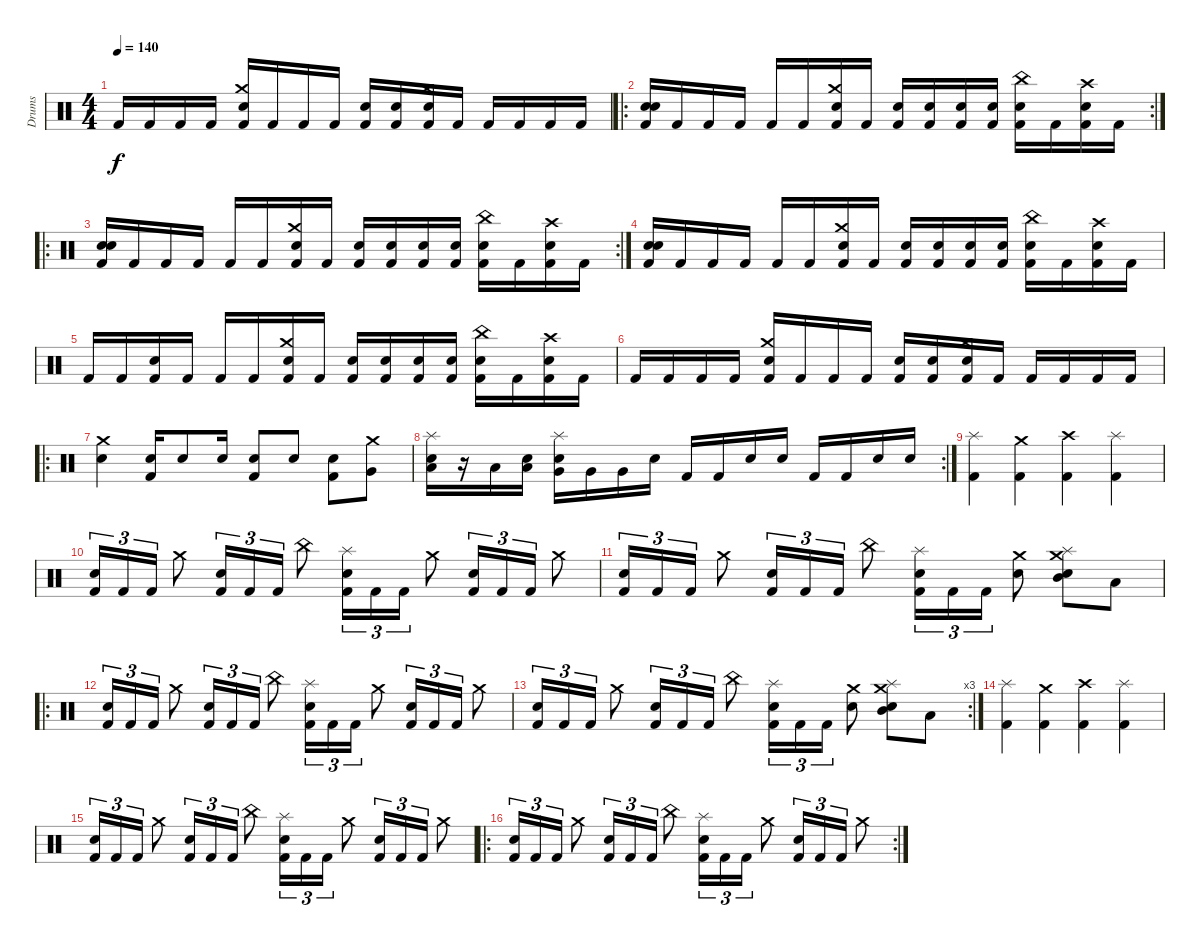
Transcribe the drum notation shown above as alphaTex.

\track ("Drums" "Drums") {instrument percussion}
\staff {score}
\articulation defaults
\ts (4 4)
\tempo 140
\clef neutral
\ks c "Kick (hit) 2".16{dy f} "Kick (hit) 2".16 "Kick (hit) 2".16 "Kick (hit) 2".16
("Crash medium (hit)" "Electric Snare (hit)" "Kick (hit) 2").16 "Kick (hit) 2".16 "Kick (hit) 2".16 "Kick (hit) 2".16 ("Electric Snare (hit)" "Kick (hit) 2").16 ("Snare (hit) 2" "Kick (hit) 2").16 ("Crash medium (hit)" "Electric Snare (hit)" "Kick (hit) 2").16 "Kick (hit) 2".16 "Kick (hit) 2".16 "Kick (hit) 2".16 "Kick (hit) 2".16 "Kick (hit) 2".16 |
\ro
\rc 2
("Electric Snare (hit)" "Snare (hit) 2" "Kick (hit) 2").16 "Kick (hit) 2".16 "Kick (hit) 2".16 "Kick (hit) 2".16 "Kick (hit) 2".16 "Kick (hit) 2".16 ("Crash medium (hit)" "Electric Snare (hit)" "Kick (hit) 2").16 "Kick (hit) 2".16 ("Electric Snare (hit)" "Kick (hit) 2").16 ("Snare (hit) 2" "Kick (hit) 2").16 ("Electric Snare (hit)" "Kick (hit) 2").16 ("Snare (hit) 2" "Kick (hit) 2").16 ("China (hit)" "Electric Snare (hit)" "Kick (hit) 2").16 "Kick (hit) 2".16 ("Crash high (hit)" "Electric Snare (hit)" "Kick (hit) 2").16 "Kick (hit) 2".16 |
\ro
\rc 2
("Electric Snare (hit)" "Snare (hit) 2" "Kick (hit) 2").16 "Kick (hit) 2".16 "Kick (hit) 2".16 "Kick (hit) 2".16 "Kick (hit) 2".16 "Kick (hit) 2".16 ("Crash medium (hit)" "Electric Snare (hit)" "Kick (hit) 2").16 "Kick (hit) 2".16 ("Electric Snare (hit)" "Kick (hit) 2").16 ("Snare (hit) 2" "Kick (hit) 2").16 ("Electric Snare (hit)" "Kick (hit) 2").16 ("Snare (hit) 2" "Kick (hit) 2").16 ("China (hit)" "Electric Snare (hit)" "Kick (hit) 2").16 "Kick (hit) 2".16 ("Crash high (hit)" "Electric Snare (hit)" "Kick (hit) 2").16 "Kick (hit) 2".16 |
("Electric Snare (hit)" "Snare (hit) 2" "Kick (hit) 2").16 "Kick (hit) 2".16 "Kick (hit) 2".16 "Kick (hit) 2".16 "Kick (hit) 2".16 "Kick (hit) 2".16 ("Crash medium (hit)" "Electric Snare (hit)" "Kick (hit) 2").16 "Kick (hit) 2".16 ("Electric Snare (hit)" "Kick (hit) 2").16 ("Snare (hit) 2" "Kick (hit) 2").16 ("Electric Snare (hit)" "Kick (hit) 2").16 ("Snare (hit) 2" "Kick (hit) 2").16 ("China (hit)" "Electric Snare (hit)" "Kick (hit) 2").16 "Kick (hit) 2".16 ("Crash high (hit)" "Electric Snare (hit)" "Kick (hit) 2").16 "Kick (hit) 2".16 |
"Kick (hit) 2".16 "Kick (hit) 2".16 ("Snare (hit) 2" "Kick (hit) 2").16 "Kick (hit) 2".16 "Kick (hit) 2".16 "Kick (hit) 2".16 ("Crash medium (hit)" "Electric Snare (hit)" "Kick (hit) 2").16 "Kick (hit) 2".16 ("Electric Snare (hit)" "Kick (hit) 2").16 ("Snare (hit) 2" "Kick (hit) 2").16 ("Electric Snare (hit)" "Kick (hit) 2").16 ("Snare (hit) 2" "Kick (hit) 2").16 ("China (hit)" "Electric Snare (hit)" "Kick (hit) 2").16 "Kick (hit) 2".16 ("Crash high (hit)" "Electric Snare (hit)" "Kick (hit) 2").16 "Kick (hit) 2".16 |
"Kick (hit) 2".16 "Kick (hit) 2".16 "Kick (hit) 2".16 "Kick (hit) 2".16 ("Crash medium (hit)" "Electric Snare (hit)" "Kick (hit) 2").16 "Kick (hit) 2".16 "Kick (hit) 2".16 "Kick (hit) 2".16 ("Electric Snare (hit)" "Kick (hit) 2").16 ("Snare (hit) 2" "Kick (hit) 2").16 ("Crash medium (hit)" "Electric Snare (hit)" "Kick (hit) 2").16 "Kick (hit) 2".16 "Kick (hit) 2".16 "Kick (hit) 2".16 "Kick (hit) 2".16 "Kick (hit) 2".16 |
\ro
("Snare (hit) 2" "Crash medium (hit)").4 ("Snare (hit) 2" "Kick (hit) 2").16 "Snare (hit) 2".8 "Snare (hit) 2".16 ("Snare (hit) 2" "Kick (hit) 2").8 "Snare (hit) 2".8 ("Snare (hit) 2" "Kick (hit) 2").8 ("Very Low Tom (hit)" "Crash medium (hit)").8 |
\rc 2
("Snare (hit) 2" "Splash (hit)" "Low Floor Tom (hit)").16 r.16 "Low Floor Tom (hit)".16 ("Snare (hit) 2" "Low Floor Tom (hit)").16 ("Snare (hit) 2" "Splash (hit)" "Very Low Tom (hit)").16 "Very Low Tom (hit)".16 "Very Low Tom (hit)".16 "Snare (hit) 2".16 "Kick (hit) 2".16 "Kick (hit) 2".16 "Snare (hit) 2".16 "Snare (hit) 2".16 "Kick (hit) 2".16 "Kick (hit) 2".16 "Snare (hit) 2".16 "Snare (hit) 2".16 |
("Splash (hit)" "Kick (hit) 2").4 ("Crash medium (hit)" "Kick (hit) 2").4 ("Crash high (hit)" "Kick (hit) 2").4 ("Splash (hit)" "Kick (hit) 2").4 |
("Snare (hit) 2" "Kick (hit) 2").16{tu (3 2)} "Kick (hit) 2".16{tu (3 2)} "Kick (hit) 2".16{tu (3 2)} "Crash medium (hit)".8 ("Snare (hit) 2" "Kick (hit) 2").16{tu (3 2)} "Kick (hit) 2".16{tu (3 2)} "Kick (hit) 2".16{tu (3 2)} "China (hit)".8 ("Snare (hit) 2" "Splash (hit)" "Kick (hit) 2").16{tu (3 2)} "Kick (hit) 2".16{tu (3 2)} "Kick (hit) 2".16{tu (3 2)} "Crash medium (hit)".8 ("Snare (hit) 2" "Kick (hit) 2").16{tu (3 2)} "Kick (hit) 2".16{tu (3 2)} "Kick (hit) 2".16{tu (3 2)} "Crash medium (hit)".8 |
("Snare (hit) 2" "Kick (hit) 2").16{tu (3 2)} "Kick (hit) 2".16{tu (3 2)} "Kick (hit) 2".16{tu (3 2)} "Crash medium (hit)".8 ("Snare (hit) 2" "Kick (hit) 2").16{tu (3 2)} "Kick (hit) 2".16{tu (3 2)} "Kick (hit) 2".16{tu (3 2)} "China (hit)".8 ("Snare (hit) 2" "Splash (hit)" "Kick (hit) 2").16{tu (3 2)} "Kick (hit) 2".16{tu (3 2)} "Kick (hit) 2".16{tu (3 2)} ("Snare (hit) 2" "Crash medium (hit)").8 ("Crash medium (hit)" "Mid Tom (hit)" "Snare (hit) 2" "Splash (hit)").8 "Low Floor Tom (hit)".8 |
\ro
("Snare (hit) 2" "Kick (hit) 2").16{tu (3 2)} "Kick (hit) 2".16{tu (3 2)} "Kick (hit) 2".16{tu (3 2)} "Crash medium (hit)".8 ("Snare (hit) 2" "Kick (hit) 2").16{tu (3 2)} "Kick (hit) 2".16{tu (3 2)} "Kick (hit) 2".16{tu (3 2)} "China (hit)".8 ("Snare (hit) 2" "Splash (hit)" "Kick (hit) 2").16{tu (3 2)} "Kick (hit) 2".16{tu (3 2)} "Kick (hit) 2".16{tu (3 2)} "Crash medium (hit)".8 ("Snare (hit) 2" "Kick (hit) 2").16{tu (3 2)} "Kick (hit) 2".16{tu (3 2)} "Kick (hit) 2".16{tu (3 2)} "Crash medium (hit)".8 |
\rc 3
("Snare (hit) 2" "Kick (hit) 2").16{tu (3 2)} "Kick (hit) 2".16{tu (3 2)} "Kick (hit) 2".16{tu (3 2)} "Crash medium (hit)".8 ("Snare (hit) 2" "Kick (hit) 2").16{tu (3 2)} "Kick (hit) 2".16{tu (3 2)} "Kick (hit) 2".16{tu (3 2)} "China (hit)".8 ("Snare (hit) 2" "Splash (hit)" "Kick (hit) 2").16{tu (3 2)} "Kick (hit) 2".16{tu (3 2)} "Kick (hit) 2".16{tu (3 2)} ("Snare (hit) 2" "Crash medium (hit)").8 ("Crash medium (hit)" "Mid Tom (hit)" "Snare (hit) 2" "Splash (hit)").8 "Low Floor Tom (hit)".8 |
("Splash (hit)" "Kick (hit) 2").4 ("Crash medium (hit)" "Kick (hit) 2").4 ("Crash high (hit)" "Kick (hit) 2").4 ("Splash (hit)" "Kick (hit) 2").4 |
("Snare (hit) 2" "Kick (hit) 2").16{tu (3 2)} "Kick (hit) 2".16{tu (3 2)} "Kick (hit) 2".16{tu (3 2)} "Crash medium (hit)".8 ("Snare (hit) 2" "Kick (hit) 2").16{tu (3 2)} "Kick (hit) 2".16{tu (3 2)} "Kick (hit) 2".16{tu (3 2)} "China (hit)".8 ("Snare (hit) 2" "Splash (hit)" "Kick (hit) 2").16{tu (3 2)} "Kick (hit) 2".16{tu (3 2)} "Kick (hit) 2".16{tu (3 2)} "Crash medium (hit)".8 ("Snare (hit) 2" "Kick (hit) 2").16{tu (3 2)} "Kick (hit) 2".16{tu (3 2)} "Kick (hit) 2".16{tu (3 2)} "Crash medium (hit)".8 |
\ro
\rc 2
("Snare (hit) 2" "Kick (hit) 2").16{tu (3 2)} "Kick (hit) 2".16{tu (3 2)} "Kick (hit) 2".16{tu (3 2)} "Crash medium (hit)".8 ("Snare (hit) 2" "Kick (hit) 2").16{tu (3 2)} "Kick (hit) 2".16{tu (3 2)} "Kick (hit) 2".16{tu (3 2)} "China (hit)".8 ("Snare (hit) 2" "Splash (hit)" "Kick (hit) 2").16{tu (3 2)} "Kick (hit) 2".16{tu (3 2)} "Kick (hit) 2".16{tu (3 2)} "Crash medium (hit)".8 ("Snare (hit) 2" "Kick (hit) 2").16{tu (3 2)} "Kick (hit) 2".16{tu (3 2)} "Kick (hit) 2".16{tu (3 2)} "Crash medium (hit)".8
